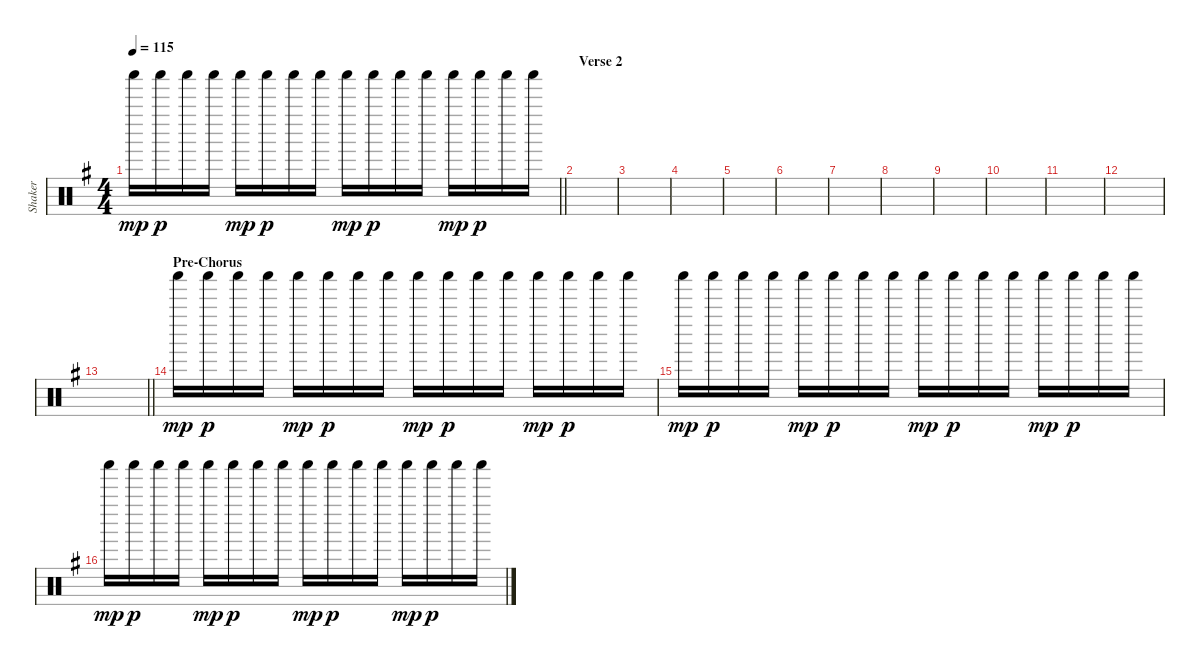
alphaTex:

\track ("Shaker" "Shaker") {instrument percussion}
\staff {score}
\articulation defaults
\ts (4 4)
\tempo 115
\clef neutral
\barLineRight lightlight
\ks g "Shaker (hit)".16{dy mp} "Shaker (hit)".16{dy p} "Shaker (hit)".16 "Shaker (hit)".16 "Shaker (hit)".16{dy mp} "Shaker (hit)".16{dy p} "Shaker (hit)".16 "Shaker (hit)".16 "Shaker (hit)".16{dy mp} "Shaker (hit)".16{dy p} "Shaker (hit)".16 "Shaker (hit)".16 "Shaker (hit)".16{dy mp} "Shaker (hit)".16{dy p} "Shaker (hit)".16 "Shaker (hit)".16
|
\section ("" "Verse 2")
|
|
|
|
|
|
|
|
|
|
|
\barLineRight lightlight
|
\section ("" "Pre-Chorus")
"Shaker (hit)".16{dy mp} "Shaker (hit)".16{dy p} "Shaker (hit)".16 "Shaker (hit)".16 "Shaker (hit)".16{dy mp} "Shaker (hit)".16{dy p} "Shaker (hit)".16 "Shaker (hit)".16 "Shaker (hit)".16{dy mp} "Shaker (hit)".16{dy p} "Shaker (hit)".16 "Shaker (hit)".16 "Shaker (hit)".16{dy mp} "Shaker (hit)".16{dy p} "Shaker (hit)".16 "Shaker (hit)".16 |
"Shaker (hit)".16{dy mp} "Shaker (hit)".16{dy p} "Shaker (hit)".16 "Shaker (hit)".16 "Shaker (hit)".16{dy mp} "Shaker (hit)".16{dy p} "Shaker (hit)".16 "Shaker (hit)".16 "Shaker (hit)".16{dy mp} "Shaker (hit)".16{dy p} "Shaker (hit)".16 "Shaker (hit)".16 "Shaker (hit)".16{dy mp} "Shaker (hit)".16{dy p} "Shaker (hit)".16 "Shaker (hit)".16 |
"Shaker (hit)".16{dy mp} "Shaker (hit)".16{dy p} "Shaker (hit)".16 "Shaker (hit)".16 "Shaker (hit)".16{dy mp} "Shaker (hit)".16{dy p} "Shaker (hit)".16 "Shaker (hit)".16 "Shaker (hit)".16{dy mp} "Shaker (hit)".16{dy p} "Shaker (hit)".16 "Shaker (hit)".16 "Shaker (hit)".16{dy mp} "Shaker (hit)".16{dy p} "Shaker (hit)".16 "Shaker (hit)".16
